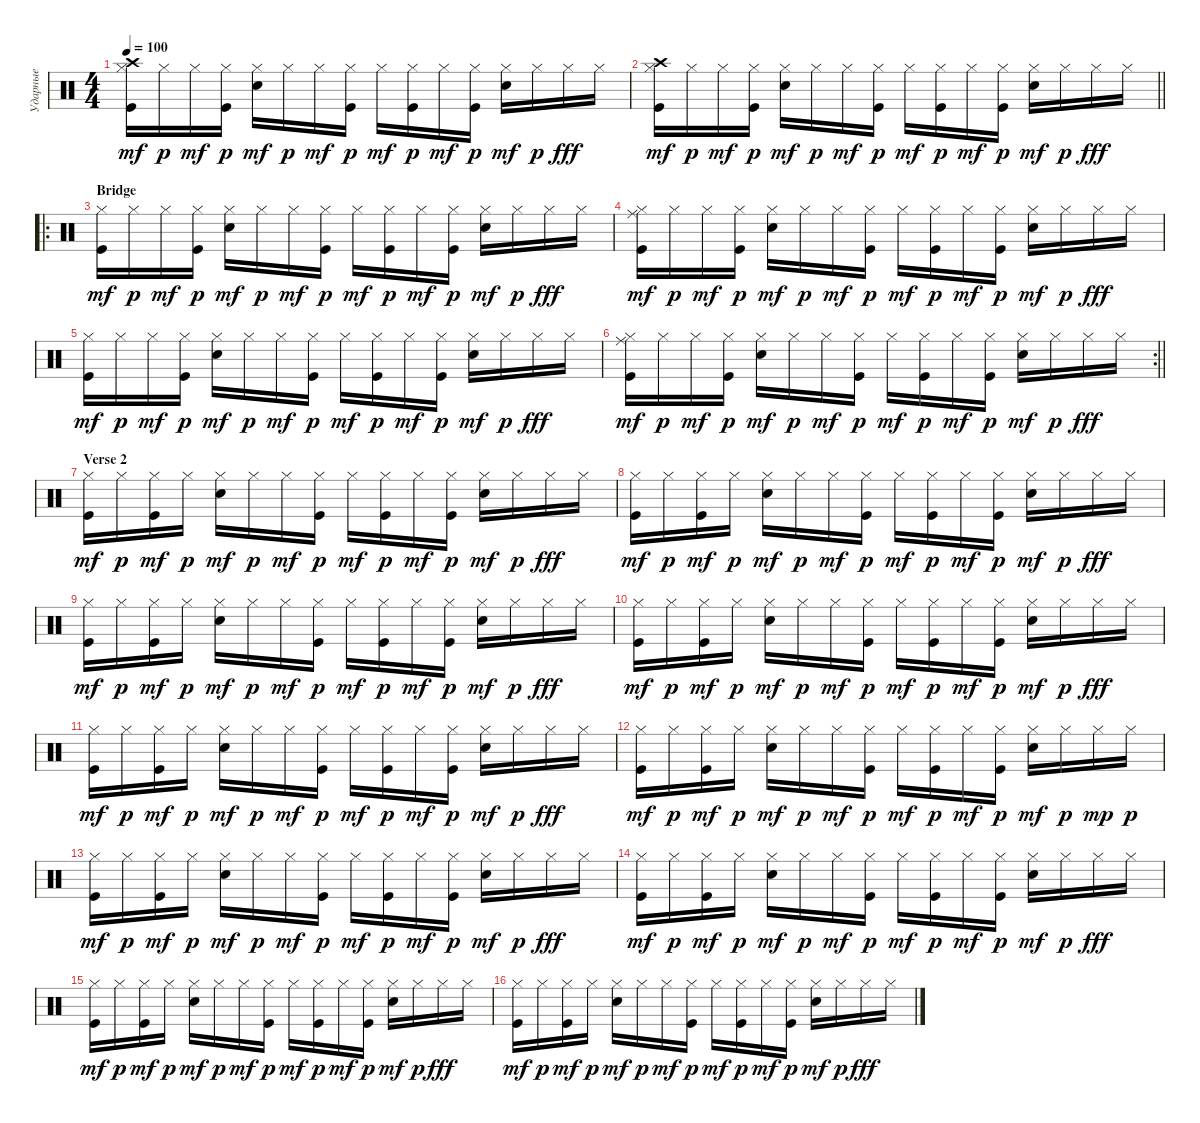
\track ("Ударные" "Ударные") {instrument percussion}
\staff {score}
\articulation defaults
\ts (4 4)
\tempo 100
\clef neutral
\ks c
("Hi-Hat (closed)" "Crash high (hit)" "Kick (hit)").16{dy mf} "Hi-Hat (closed)".16{dy p} "Hi-Hat (closed)".16{dy mf} ("Hi-Hat (closed)" "Kick (hit)").16{dy p} ("Hi-Hat (closed)" "Snare (hit) 2").16{dy mf} "Hi-Hat (closed)".16{dy p} "Hi-Hat (closed)".16{dy mf} ("Hi-Hat (closed)" "Kick (hit)").16{dy p} "Hi-Hat (closed)".16{dy mf} ("Hi-Hat (closed)" "Kick (hit)").16{dy p} "Hi-Hat (closed)".16{dy mf} ("Hi-Hat (closed)" "Kick (hit)").16{dy p} ("Hi-Hat (closed)" "Snare (hit) 2").16{dy mf} "Hi-Hat (closed)".16{dy p} "Hi-Hat (closed)".16{dy fff} "Hi-Hat (closed)".16 |
\barLineRight lightlight
("Hi-Hat (closed)" "Crash high (hit)" "Kick (hit)").16{dy mf} "Hi-Hat (closed)".16{dy p} "Hi-Hat (closed)".16{dy mf} ("Hi-Hat (closed)" "Kick (hit)").16{dy p} ("Hi-Hat (closed)" "Snare (hit) 2").16{dy mf} "Hi-Hat (closed)".16{dy p} "Hi-Hat (closed)".16{dy mf} ("Hi-Hat (closed)" "Kick (hit)").16{dy p} "Hi-Hat (closed)".16{dy mf} ("Hi-Hat (closed)" "Kick (hit)").16{dy p} "Hi-Hat (closed)".16{dy mf} ("Hi-Hat (closed)" "Kick (hit)").16{dy p} ("Hi-Hat (closed)" "Snare (hit) 2").16{dy mf} "Hi-Hat (closed)".16{dy p} "Hi-Hat (closed)".16{dy fff} "Hi-Hat (closed)".16 |
\ro
\section ("" "Bridge")
("Hi-Hat (closed)" "Kick (hit)").16{dy mf} "Hi-Hat (closed)".16{dy p} "Hi-Hat (closed)".16{dy mf} ("Hi-Hat (closed)" "Kick (hit)").16{dy p} ("Hi-Hat (closed)" "Snare (hit) 2").16{dy mf} "Hi-Hat (closed)".16{dy p} "Hi-Hat (closed)".16{dy mf} ("Hi-Hat (closed)" "Kick (hit)").16{dy p} "Hi-Hat (closed)".16{dy mf} ("Hi-Hat (closed)" "Kick (hit)").16{dy p} "Hi-Hat (closed)".16{dy mf} ("Hi-Hat (closed)" "Kick (hit)").16{dy p} ("Hi-Hat (closed)" "Snare (hit) 2").16{dy mf} "Hi-Hat (closed)".16{dy p} "Hi-Hat (closed)".16{dy fff} "Hi-Hat (closed)".16 |
("Hi-Hat (closed)" "Ride (middle)" "Kick (hit)").16{dy mf} "Hi-Hat (closed)".16{dy p} "Hi-Hat (closed)".16{dy mf} ("Hi-Hat (closed)" "Kick (hit)").16{dy p} ("Hi-Hat (closed)" "Snare (hit) 2").16{dy mf} "Hi-Hat (closed)".16{dy p} "Hi-Hat (closed)".16{dy mf} ("Hi-Hat (closed)" "Kick (hit)").16{dy p} "Hi-Hat (closed)".16{dy mf} ("Hi-Hat (closed)" "Kick (hit)").16{dy p} "Hi-Hat (closed)".16{dy mf} ("Hi-Hat (closed)" "Kick (hit)").16{dy p} ("Hi-Hat (closed)" "Snare (hit) 2").16{dy mf} "Hi-Hat (closed)".16{dy p} "Hi-Hat (closed)".16{dy fff} "Hi-Hat (closed)".16 |
("Hi-Hat (closed)" "Kick (hit)").16{dy mf} "Hi-Hat (closed)".16{dy p} "Hi-Hat (closed)".16{dy mf} ("Hi-Hat (closed)" "Kick (hit)").16{dy p} ("Hi-Hat (closed)" "Snare (hit) 2").16{dy mf} "Hi-Hat (closed)".16{dy p} "Hi-Hat (closed)".16{dy mf} ("Hi-Hat (closed)" "Kick (hit)").16{dy p} "Hi-Hat (closed)".16{dy mf} ("Hi-Hat (closed)" "Kick (hit)").16{dy p} "Hi-Hat (closed)".16{dy mf} ("Hi-Hat (closed)" "Kick (hit)").16{dy p} ("Hi-Hat (closed)" "Snare (hit) 2").16{dy mf} "Hi-Hat (closed)".16{dy p} "Hi-Hat (closed)".16{dy fff} "Hi-Hat (closed)".16 |
\rc 2
\barLineRight lightlight
("Hi-Hat (closed)" "Ride (middle)" "Kick (hit)").16{dy mf} "Hi-Hat (closed)".16{dy p} "Hi-Hat (closed)".16{dy mf} ("Hi-Hat (closed)" "Kick (hit)").16{dy p} ("Hi-Hat (closed)" "Snare (hit) 2").16{dy mf} "Hi-Hat (closed)".16{dy p} "Hi-Hat (closed)".16{dy mf} ("Hi-Hat (closed)" "Kick (hit)").16{dy p} "Hi-Hat (closed)".16{dy mf} ("Hi-Hat (closed)" "Kick (hit)").16{dy p} "Hi-Hat (closed)".16{dy mf} ("Hi-Hat (closed)" "Kick (hit)").16{dy p} ("Hi-Hat (closed)" "Snare (hit) 2").16{dy mf} "Hi-Hat (closed)".16{dy p} "Hi-Hat (closed)".16{dy fff} "Hi-Hat (closed)".16 |
\section ("" "Verse 2")
("Hi-Hat (closed)" "Kick (hit)").16{dy mf} "Hi-Hat (closed)".16{dy p} ("Hi-Hat (closed)" "Kick (hit)").16{dy mf} "Hi-Hat (closed)".16{dy p} ("Hi-Hat (closed)" "Snare (hit) 2").16{dy mf} "Hi-Hat (closed)".16{dy p} "Hi-Hat (closed)".16{dy mf} ("Hi-Hat (closed)" "Kick (hit)").16{dy p} "Hi-Hat (closed)".16{dy mf} ("Hi-Hat (closed)" "Kick (hit)").16{dy p} "Hi-Hat (closed)".16{dy mf} ("Hi-Hat (closed)" "Kick (hit)").16{dy p} ("Hi-Hat (closed)" "Snare (hit) 2").16{dy mf} "Hi-Hat (closed)".16{dy p} "Hi-Hat (closed)".16{dy fff} "Hi-Hat (closed)".16 |
("Hi-Hat (closed)" "Kick (hit)").16{dy mf} "Hi-Hat (closed)".16{dy p} ("Hi-Hat (closed)" "Kick (hit)").16{dy mf} "Hi-Hat (closed)".16{dy p} ("Hi-Hat (closed)" "Snare (hit) 2").16{dy mf} "Hi-Hat (closed)".16{dy p} "Hi-Hat (closed)".16{dy mf} ("Hi-Hat (closed)" "Kick (hit)").16{dy p} "Hi-Hat (closed)".16{dy mf} ("Hi-Hat (closed)" "Kick (hit)").16{dy p} "Hi-Hat (closed)".16{dy mf} ("Hi-Hat (closed)" "Kick (hit)").16{dy p} ("Hi-Hat (closed)" "Snare (hit) 2").16{dy mf} "Hi-Hat (closed)".16{dy p} "Hi-Hat (closed)".16{dy fff} "Hi-Hat (closed)".16 |
("Hi-Hat (closed)" "Kick (hit)").16{dy mf} "Hi-Hat (closed)".16{dy p} ("Hi-Hat (closed)" "Kick (hit)").16{dy mf} "Hi-Hat (closed)".16{dy p} ("Hi-Hat (closed)" "Snare (hit) 2").16{dy mf} "Hi-Hat (closed)".16{dy p} "Hi-Hat (closed)".16{dy mf} ("Hi-Hat (closed)" "Kick (hit)").16{dy p} "Hi-Hat (closed)".16{dy mf} ("Hi-Hat (closed)" "Kick (hit)").16{dy p} "Hi-Hat (closed)".16{dy mf} ("Hi-Hat (closed)" "Kick (hit)").16{dy p} ("Hi-Hat (closed)" "Snare (hit) 2").16{dy mf} "Hi-Hat (closed)".16{dy p} "Hi-Hat (closed)".16{dy fff} "Hi-Hat (closed)".16 |
("Hi-Hat (closed)" "Kick (hit)").16{dy mf} "Hi-Hat (closed)".16{dy p} ("Hi-Hat (closed)" "Kick (hit)").16{dy mf} "Hi-Hat (closed)".16{dy p} ("Hi-Hat (closed)" "Snare (hit) 2").16{dy mf} "Hi-Hat (closed)".16{dy p} "Hi-Hat (closed)".16{dy mf} ("Hi-Hat (closed)" "Kick (hit)").16{dy p} "Hi-Hat (closed)".16{dy mf} ("Hi-Hat (closed)" "Kick (hit)").16{dy p} "Hi-Hat (closed)".16{dy mf} ("Hi-Hat (closed)" "Kick (hit)").16{dy p} ("Hi-Hat (closed)" "Snare (hit) 2").16{dy mf} "Hi-Hat (closed)".16{dy p} "Hi-Hat (closed)".16{dy fff} "Hi-Hat (closed)".16 |
("Hi-Hat (closed)" "Kick (hit)").16{dy mf} "Hi-Hat (closed)".16{dy p} ("Hi-Hat (closed)" "Kick (hit)").16{dy mf} "Hi-Hat (closed)".16{dy p} ("Hi-Hat (closed)" "Snare (hit) 2").16{dy mf} "Hi-Hat (closed)".16{dy p} "Hi-Hat (closed)".16{dy mf} ("Hi-Hat (closed)" "Kick (hit)").16{dy p} "Hi-Hat (closed)".16{dy mf} ("Hi-Hat (closed)" "Kick (hit)").16{dy p} "Hi-Hat (closed)".16{dy mf} ("Hi-Hat (closed)" "Kick (hit)").16{dy p} ("Hi-Hat (closed)" "Snare (hit) 2").16{dy mf} "Hi-Hat (closed)".16{dy p} "Hi-Hat (closed)".16{dy fff} "Hi-Hat (closed)".16 |
("Hi-Hat (closed)" "Kick (hit)").16{dy mf} "Hi-Hat (closed)".16{dy p} ("Hi-Hat (closed)" "Kick (hit)").16{dy mf} "Hi-Hat (closed)".16{dy p} ("Hi-Hat (closed)" "Snare (hit) 2").16{dy mf} "Hi-Hat (closed)".16{dy p} "Hi-Hat (closed)".16{dy mf} ("Hi-Hat (closed)" "Kick (hit)").16{dy p} "Hi-Hat (closed)".16{dy mf} ("Hi-Hat (closed)" "Kick (hit)").16{dy p} "Hi-Hat (closed)".16{dy mf} ("Hi-Hat (closed)" "Kick (hit)").16{dy p} ("Hi-Hat (closed)" "Snare (hit) 2").16{dy mf} "Hi-Hat (closed)".16{dy p} "Hi-Hat (closed)".16{dy mp} "Hi-Hat (closed)".16{dy p} |
("Hi-Hat (closed)" "Kick (hit)").16{dy mf} "Hi-Hat (closed)".16{dy p} ("Hi-Hat (closed)" "Kick (hit)").16{dy mf} "Hi-Hat (closed)".16{dy p} ("Hi-Hat (closed)" "Snare (hit) 2").16{dy mf} "Hi-Hat (closed)".16{dy p} "Hi-Hat (closed)".16{dy mf} ("Hi-Hat (closed)" "Kick (hit)").16{dy p} "Hi-Hat (closed)".16{dy mf} ("Hi-Hat (closed)" "Kick (hit)").16{dy p} "Hi-Hat (closed)".16{dy mf} ("Hi-Hat (closed)" "Kick (hit)").16{dy p} ("Hi-Hat (closed)" "Snare (hit) 2").16{dy mf} "Hi-Hat (closed)".16{dy p} "Hi-Hat (closed)".16{dy fff} "Hi-Hat (closed)".16 |
("Hi-Hat (closed)" "Kick (hit)").16{dy mf} "Hi-Hat (closed)".16{dy p} ("Hi-Hat (closed)" "Kick (hit)").16{dy mf} "Hi-Hat (closed)".16{dy p} ("Hi-Hat (closed)" "Snare (hit) 2").16{dy mf} "Hi-Hat (closed)".16{dy p} "Hi-Hat (closed)".16{dy mf} ("Hi-Hat (closed)" "Kick (hit)").16{dy p} "Hi-Hat (closed)".16{dy mf} ("Hi-Hat (closed)" "Kick (hit)").16{dy p} "Hi-Hat (closed)".16{dy mf} ("Hi-Hat (closed)" "Kick (hit)").16{dy p} ("Hi-Hat (closed)" "Snare (hit) 2").16{dy mf} "Hi-Hat (closed)".16{dy p} "Hi-Hat (closed)".16{dy fff} "Hi-Hat (closed)".16 |
("Hi-Hat (closed)" "Kick (hit)").16{dy mf} "Hi-Hat (closed)".16{dy p} ("Hi-Hat (closed)" "Kick (hit)").16{dy mf} "Hi-Hat (closed)".16{dy p} ("Hi-Hat (closed)" "Snare (hit) 2").16{dy mf} "Hi-Hat (closed)".16{dy p} "Hi-Hat (closed)".16{dy mf} ("Hi-Hat (closed)" "Kick (hit)").16{dy p} "Hi-Hat (closed)".16{dy mf} ("Hi-Hat (closed)" "Kick (hit)").16{dy p} "Hi-Hat (closed)".16{dy mf} ("Hi-Hat (closed)" "Kick (hit)").16{dy p} ("Hi-Hat (closed)" "Snare (hit) 2").16{dy mf} "Hi-Hat (closed)".16{dy p} "Hi-Hat (closed)".16{dy fff} "Hi-Hat (closed)".16 |
("Hi-Hat (closed)" "Kick (hit)").16{dy mf} "Hi-Hat (closed)".16{dy p} ("Hi-Hat (closed)" "Kick (hit)").16{dy mf} "Hi-Hat (closed)".16{dy p} ("Hi-Hat (closed)" "Snare (hit) 2").16{dy mf} "Hi-Hat (closed)".16{dy p} "Hi-Hat (closed)".16{dy mf} ("Hi-Hat (closed)" "Kick (hit)").16{dy p} "Hi-Hat (closed)".16{dy mf} ("Hi-Hat (closed)" "Kick (hit)").16{dy p} "Hi-Hat (closed)".16{dy mf} ("Hi-Hat (closed)" "Kick (hit)").16{dy p} ("Hi-Hat (closed)" "Snare (hit) 2").16{dy mf} "Hi-Hat (closed)".16{dy p} "Hi-Hat (closed)".16{dy fff} "Hi-Hat (closed)".16
